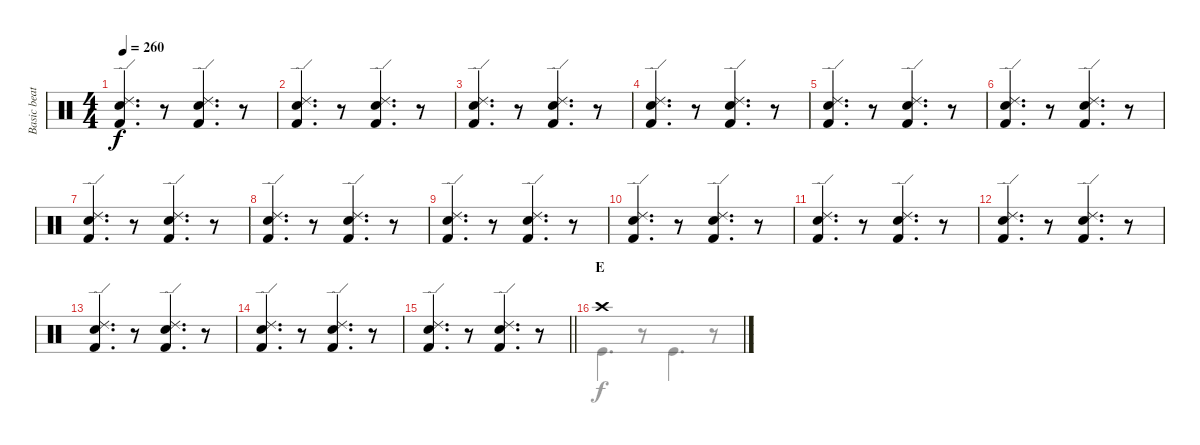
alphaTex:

\track ("Basic beat" "Basic beat") {instrument percussion}
\staff {score}
\articulation defaults
\voice
\ts (4 4)
\tempo 260
\clef neutral
\ks c
("Ride (edge) 2" "Electric Snare (hit)" "Kick (hit) 2").4{d dy f} r.8 ("Ride (edge) 2" "Electric Snare (hit)" "Kick (hit) 2").4{d} r.8 |
("Ride (edge) 2" "Electric Snare (hit)" "Kick (hit) 2").4{d} r.8 ("Ride (edge) 2" "Electric Snare (hit)" "Kick (hit) 2").4{d} r.8 |
("Ride (edge) 2" "Electric Snare (hit)" "Kick (hit) 2").4{d} r.8 ("Ride (edge) 2" "Electric Snare (hit)" "Kick (hit) 2").4{d} r.8 |
("Ride (edge) 2" "Electric Snare (hit)" "Kick (hit) 2").4{d} r.8 ("Ride (edge) 2" "Electric Snare (hit)" "Kick (hit) 2").4{d} r.8 |
("Ride (edge) 2" "Electric Snare (hit)" "Kick (hit) 2").4{d} r.8 ("Ride (edge) 2" "Electric Snare (hit)" "Kick (hit) 2").4{d} r.8 |
("Ride (edge) 2" "Electric Snare (hit)" "Kick (hit) 2").4{d} r.8 ("Ride (edge) 2" "Electric Snare (hit)" "Kick (hit) 2").4{d} r.8 |
("Ride (edge) 2" "Electric Snare (hit)" "Kick (hit) 2").4{d} r.8 ("Ride (edge) 2" "Electric Snare (hit)" "Kick (hit) 2").4{d} r.8 |
("Ride (edge) 2" "Electric Snare (hit)" "Kick (hit) 2").4{d} r.8 ("Ride (edge) 2" "Electric Snare (hit)" "Kick (hit) 2").4{d} r.8 |
("Ride (edge) 2" "Electric Snare (hit)" "Kick (hit) 2").4{d} r.8 ("Ride (edge) 2" "Electric Snare (hit)" "Kick (hit) 2").4{d} r.8 |
("Ride (edge) 2" "Electric Snare (hit)" "Kick (hit) 2").4{d} r.8 ("Ride (edge) 2" "Electric Snare (hit)" "Kick (hit) 2").4{d} r.8 |
("Ride (edge) 2" "Electric Snare (hit)" "Kick (hit) 2").4{d} r.8 ("Ride (edge) 2" "Electric Snare (hit)" "Kick (hit) 2").4{d} r.8 |
("Ride (edge) 2" "Electric Snare (hit)" "Kick (hit) 2").4{d} r.8 ("Ride (edge) 2" "Electric Snare (hit)" "Kick (hit) 2").4{d} r.8 |
("Ride (edge) 2" "Electric Snare (hit)" "Kick (hit) 2").4{d} r.8 ("Ride (edge) 2" "Electric Snare (hit)" "Kick (hit) 2").4{d} r.8 |
("Ride (edge) 2" "Electric Snare (hit)" "Kick (hit) 2").4{d} r.8 ("Ride (edge) 2" "Electric Snare (hit)" "Kick (hit) 2").4{d} r.8 |
\barLineRight lightlight
("Ride (edge) 2" "Electric Snare (hit)" "Kick (hit) 2").4{d} r.8 ("Ride (edge) 2" "Electric Snare (hit)" "Kick (hit) 2").4{d} r.8 |
\section ("" "E")
"Crash high (hit)".1
\voice
\clef neutral
\ottava regular
\simile none
\ks c
|
|
|
|
|
|
|
|
|
|
|
|
|
|
\barLineRight lightlight
|
"Kick (hit)".4{d} r.8 "Kick (hit)".4{d} r.8
